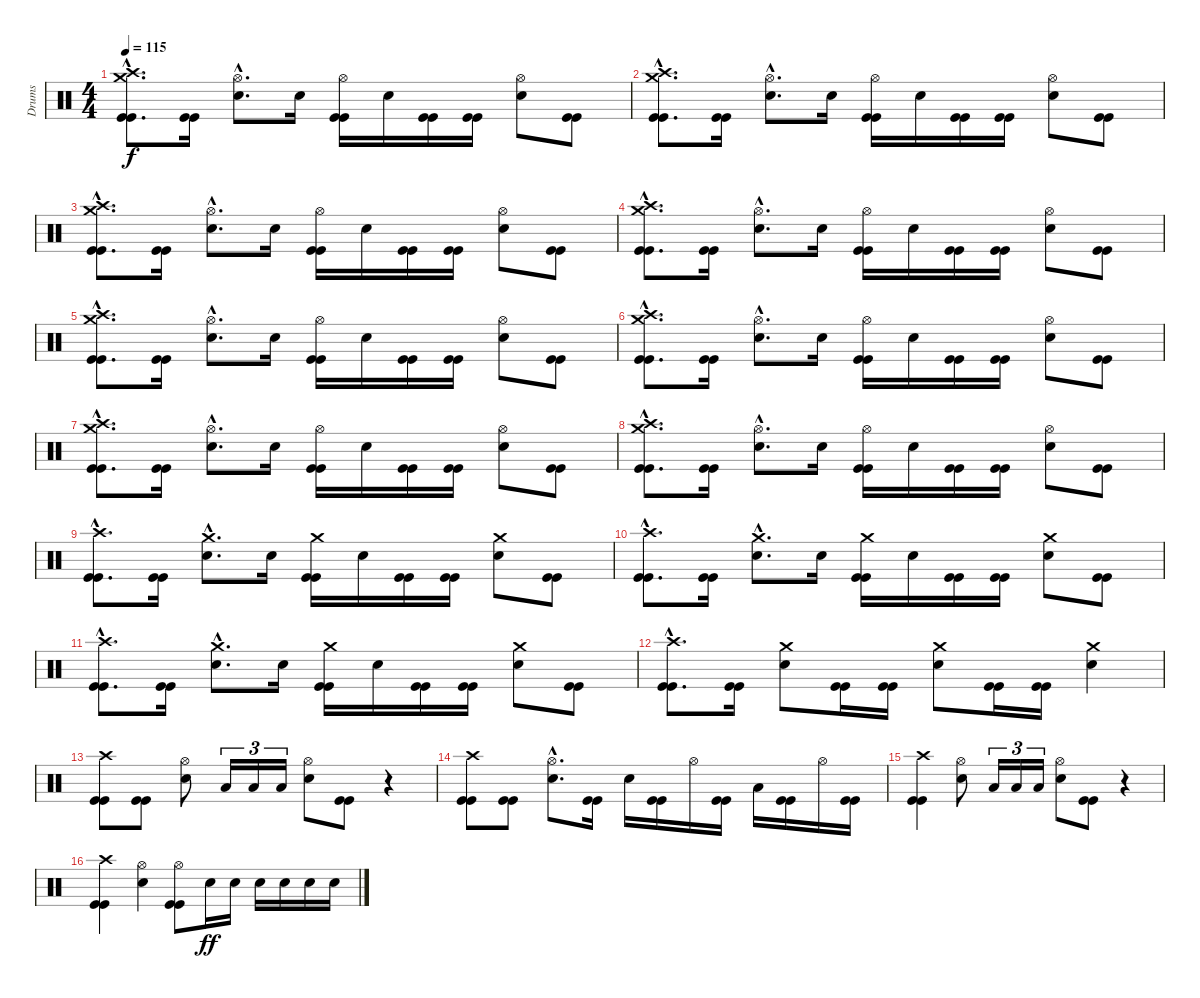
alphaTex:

\track ("Drums" "Drums") {instrument percussion}
\staff {score}
\articulation defaults
\ts (4 4)
\tempo 115
\clef neutral
\ks c
("Crash high (hit)"{hac} "Crash medium (hit)"{hac} "Kick (hit)"{hac} "Kick (hit)"{hac}).8{d dy f} ("Kick (hit)" "Kick (hit)").16 ("Hi-Hat (open)"{hac} "Electric Snare (hit)"{hac}).8{d} "Electric Snare (hit)".16 ("Hi-Hat (open)" "Kick (hit)" "Kick (hit)").16 "Electric Snare (hit)".16 ("Kick (hit)" "Kick (hit)").16 ("Kick (hit)" "Kick (hit)").16 ("Hi-Hat (open)" "Electric Snare (hit)").8 ("Kick (hit)" "Kick (hit)").8 |
("Crash high (hit)"{hac} "Crash medium (hit)"{hac} "Kick (hit)"{hac} "Kick (hit)"{hac}).8{d} ("Kick (hit)" "Kick (hit)").16 ("Hi-Hat (open)"{hac} "Electric Snare (hit)"{hac}).8{d} "Electric Snare (hit)".16 ("Hi-Hat (open)" "Kick (hit)" "Kick (hit)").16 "Electric Snare (hit)".16 ("Kick (hit)" "Kick (hit)").16 ("Kick (hit)" "Kick (hit)").16 ("Hi-Hat (open)" "Electric Snare (hit)").8 ("Kick (hit)" "Kick (hit)").8 |
("Crash high (hit)"{hac} "Crash medium (hit)"{hac} "Kick (hit)"{hac} "Kick (hit)"{hac}).8{d} ("Kick (hit)" "Kick (hit)").16 ("Hi-Hat (open)"{hac} "Electric Snare (hit)"{hac}).8{d} "Electric Snare (hit)".16 ("Hi-Hat (open)" "Kick (hit)" "Kick (hit)").16 "Electric Snare (hit)".16 ("Kick (hit)" "Kick (hit)").16 ("Kick (hit)" "Kick (hit)").16 ("Hi-Hat (open)" "Electric Snare (hit)").8 ("Kick (hit)" "Kick (hit)").8 |
("Crash high (hit)"{hac} "Crash medium (hit)"{hac} "Kick (hit)"{hac} "Kick (hit)"{hac}).8{d} ("Kick (hit)" "Kick (hit)").16 ("Hi-Hat (open)"{hac} "Electric Snare (hit)"{hac}).8{d} "Electric Snare (hit)".16 ("Hi-Hat (open)" "Kick (hit)" "Kick (hit)").16 "Electric Snare (hit)".16 ("Kick (hit)" "Kick (hit)").16 ("Kick (hit)" "Kick (hit)").16 ("Hi-Hat (open)" "Electric Snare (hit)").8 ("Kick (hit)" "Kick (hit)").8 |
("Crash high (hit)"{hac} "Crash medium (hit)"{hac} "Kick (hit)"{hac} "Kick (hit)"{hac}).8{d} ("Kick (hit)" "Kick (hit)").16 ("Hi-Hat (open)"{hac} "Electric Snare (hit)"{hac}).8{d} "Electric Snare (hit)".16 ("Hi-Hat (open)" "Kick (hit)" "Kick (hit)").16 "Electric Snare (hit)".16 ("Kick (hit)" "Kick (hit)").16 ("Kick (hit)" "Kick (hit)").16 ("Hi-Hat (open)" "Electric Snare (hit)").8 ("Kick (hit)" "Kick (hit)").8 |
("Crash high (hit)"{hac} "Crash medium (hit)"{hac} "Kick (hit)"{hac} "Kick (hit)"{hac}).8{d} ("Kick (hit)" "Kick (hit)").16 ("Hi-Hat (open)"{hac} "Electric Snare (hit)"{hac}).8{d} "Electric Snare (hit)".16 ("Hi-Hat (open)" "Kick (hit)" "Kick (hit)").16 "Electric Snare (hit)".16 ("Kick (hit)" "Kick (hit)").16 ("Kick (hit)" "Kick (hit)").16 ("Hi-Hat (open)" "Electric Snare (hit)").8 ("Kick (hit)" "Kick (hit)").8 |
("Crash high (hit)"{hac} "Crash medium (hit)"{hac} "Kick (hit)"{hac} "Kick (hit)"{hac}).8{d} ("Kick (hit)" "Kick (hit)").16 ("Hi-Hat (open)"{hac} "Electric Snare (hit)"{hac}).8{d} "Electric Snare (hit)".16 ("Hi-Hat (open)" "Kick (hit)" "Kick (hit)").16 "Electric Snare (hit)".16 ("Kick (hit)" "Kick (hit)").16 ("Kick (hit)" "Kick (hit)").16 ("Hi-Hat (open)" "Electric Snare (hit)").8 ("Kick (hit)" "Kick (hit)").8 |
("Crash high (hit)"{hac} "Crash medium (hit)"{hac} "Kick (hit)"{hac} "Kick (hit)"{hac}).8{d} ("Kick (hit)" "Kick (hit)").16 ("Hi-Hat (open)"{hac} "Electric Snare (hit)"{hac}).8{d} "Electric Snare (hit)".16 ("Hi-Hat (open)" "Kick (hit)" "Kick (hit)").16 "Electric Snare (hit)".16 ("Kick (hit)" "Kick (hit)").16 ("Kick (hit)" "Kick (hit)").16 ("Hi-Hat (open)" "Electric Snare (hit)").8 ("Kick (hit)" "Kick (hit)").8 |
("Crash high (hit)"{hac} "Kick (hit)"{hac} "Kick (hit)"{hac}).8{d} ("Kick (hit)" "Kick (hit)").16 ("Crash medium (hit)"{hac} "Electric Snare (hit)"{hac}).8{d} "Electric Snare (hit)".16 ("Crash medium (hit)" "Kick (hit)" "Kick (hit)").16 "Electric Snare (hit)".16 ("Kick (hit)" "Kick (hit)").16 ("Kick (hit)" "Kick (hit)").16 ("Crash medium (hit)" "Electric Snare (hit)").8 ("Kick (hit)" "Kick (hit)").8 |
("Crash high (hit)"{hac} "Kick (hit)"{hac} "Kick (hit)"{hac}).8{d} ("Kick (hit)" "Kick (hit)").16 ("Crash medium (hit)"{hac} "Electric Snare (hit)"{hac}).8{d} "Electric Snare (hit)".16 ("Crash medium (hit)" "Kick (hit)" "Kick (hit)").16 "Electric Snare (hit)".16 ("Kick (hit)" "Kick (hit)").16 ("Kick (hit)" "Kick (hit)").16 ("Crash medium (hit)" "Electric Snare (hit)").8 ("Kick (hit)" "Kick (hit)").8 |
("Crash high (hit)"{hac} "Kick (hit)"{hac} "Kick (hit)"{hac}).8{d} ("Kick (hit)" "Kick (hit)").16 ("Crash medium (hit)"{hac} "Electric Snare (hit)"{hac}).8{d} "Electric Snare (hit)".16 ("Crash medium (hit)" "Kick (hit)" "Kick (hit)").16 "Electric Snare (hit)".16 ("Kick (hit)" "Kick (hit)").16 ("Kick (hit)" "Kick (hit)").16 ("Crash medium (hit)" "Electric Snare (hit)").8 ("Kick (hit)" "Kick (hit)").8 |
("Crash high (hit)"{hac} "Kick (hit)"{hac} "Kick (hit)"{hac}).8{d} ("Kick (hit)" "Kick (hit)").16 ("Crash medium (hit)" "Electric Snare (hit)").8 ("Kick (hit)" "Kick (hit)").16 ("Kick (hit)" "Kick (hit)").16 ("Crash medium (hit)" "Electric Snare (hit)").8 ("Kick (hit)" "Kick (hit)").16 ("Kick (hit)" "Kick (hit)").16 ("Crash medium (hit)" "Electric Snare (hit)").4 |
("Crash high (hit)" "Kick (hit)" "Kick (hit)").8 ("Kick (hit)" "Kick (hit)").8 ("Hi-Hat (open)" "Electric Snare (hit)").8 "Low Tom (hit)".16{tu (3 2)} "Low Tom (hit)".16{tu (3 2)} "Low Tom (hit)".16{tu (3 2)} ("Hi-Hat (open)" "Electric Snare (hit)").8 ("Kick (hit)" "Kick (hit)").8 r.4 |
("Crash high (hit)" "Kick (hit)" "Kick (hit)").8 ("Kick (hit)" "Kick (hit)").8 ("Hi-Hat (open)"{hac} "Electric Snare (hit)"{hac}).8{d} ("Kick (hit)" "Kick (hit)").16 "Electric Snare (hit)".16 ("Kick (hit)" "Kick (hit)").16 "Hi-Hat (open)".16 ("Kick (hit)" "Kick (hit)").16 "Low Tom (hit)".16 ("Kick (hit)" "Kick (hit)").16 "Hi-Hat (open)".16 ("Kick (hit)" "Kick (hit)").16 |
("Crash high (hit)" "Kick (hit)" "Kick (hit)").4 ("Hi-Hat (open)" "Electric Snare (hit)").8 "Low Tom (hit)".16{tu (3 2)} "Low Tom (hit)".16{tu (3 2)} "Low Tom (hit)".16{tu (3 2)} ("Hi-Hat (open)" "Electric Snare (hit)").8 ("Kick (hit)" "Kick (hit)").8 r.4 |
("Crash high (hit)" "Kick (hit)" "Kick (hit)").4 ("Hi-Hat (open)" "Electric Snare (hit)").4 ("Hi-Hat (open)" "Kick (hit)" "Kick (hit)").8 "Electric Snare (hit)".16{dy ff} "Electric Snare (hit)".16 "Electric Snare (hit)".16 "Electric Snare (hit)".16 "Electric Snare (hit)".16 "Electric Snare (hit)".16
